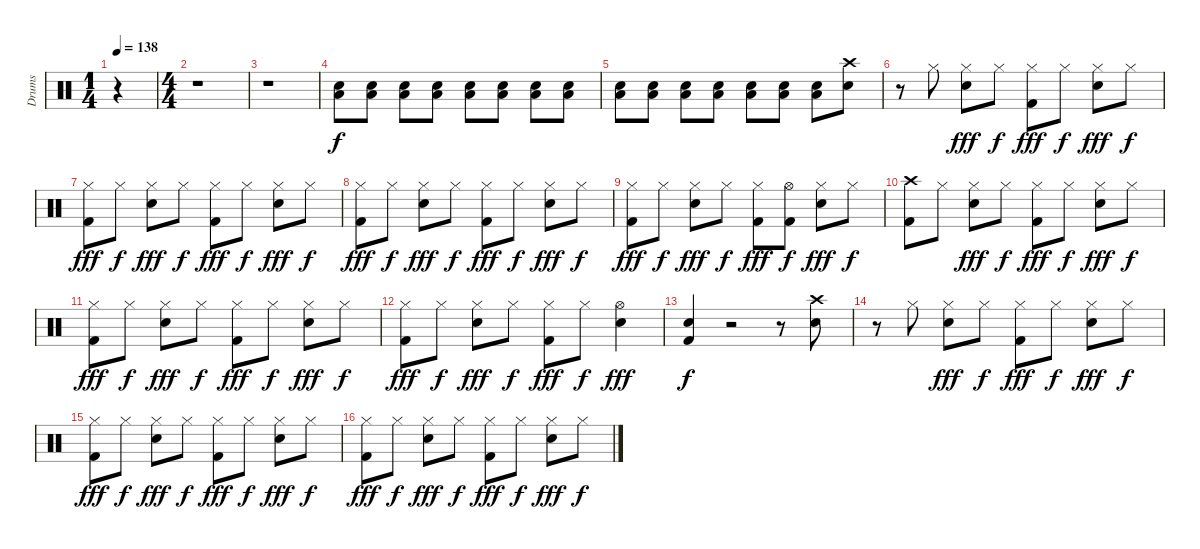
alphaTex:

\track ("Drums" "Drums") {instrument percussion}
\staff {score}
\articulation defaults
\ts (1 4)
\tempo 138
\clef neutral
\ks c
r.4{dy f} |
\ts (4 4)
r.1 |
r.1 |
("Snare (hit) 2" "Low Floor Tom (hit)").8{volume 10} ("Snare (hit) 2" "Low Floor Tom (hit)").8{volume 16} ("Snare (hit) 2" "Low Floor Tom (hit)").8 ("Snare (hit) 2" "Low Floor Tom (hit)").8 ("Snare (hit) 2" "Low Floor Tom (hit)").8 ("Snare (hit) 2" "Low Floor Tom (hit)").8 ("Snare (hit) 2" "Low Floor Tom (hit)").8 ("Snare (hit) 2" "Low Floor Tom (hit)").8 |
("Snare (hit) 2" "Low Floor Tom (hit)").8 ("Snare (hit) 2" "Low Floor Tom (hit)").8 ("Snare (hit) 2" "Low Floor Tom (hit)").8 ("Snare (hit) 2" "Low Floor Tom (hit)").8 ("Snare (hit) 2" "Low Floor Tom (hit)").8 ("Snare (hit) 2" "Low Floor Tom (hit)").8 ("Snare (hit) 2" "Low Floor Tom (hit)").8 ("Crash high (hit)" "Snare (hit) 2").8 |
r.8 "Hi-Hat (closed)".8 ("Hi-Hat (closed)" "Snare (hit) 2").8{dy fff} "Hi-Hat (closed)".8{dy f} ("Hi-Hat (closed)" "Kick (hit) 2").8{dy fff} "Hi-Hat (closed)".8{dy f} ("Hi-Hat (closed)" "Snare (hit) 2").8{dy fff} "Hi-Hat (closed)".8{dy f} |
("Hi-Hat (closed)" "Kick (hit) 2").8{dy fff} "Hi-Hat (closed)".8{dy f} ("Hi-Hat (closed)" "Snare (hit) 2").8{dy fff} "Hi-Hat (closed)".8{dy f} ("Hi-Hat (closed)" "Kick (hit) 2").8{dy fff} "Hi-Hat (closed)".8{dy f} ("Hi-Hat (closed)" "Snare (hit) 2").8{dy fff} "Hi-Hat (closed)".8{dy f} |
("Hi-Hat (closed)" "Kick (hit) 2").8{dy fff} "Hi-Hat (closed)".8{dy f} ("Hi-Hat (closed)" "Snare (hit) 2").8{dy fff} "Hi-Hat (closed)".8{dy f} ("Hi-Hat (closed)" "Kick (hit) 2").8{dy fff} "Hi-Hat (closed)".8{dy f} ("Hi-Hat (closed)" "Snare (hit) 2").8{dy fff} "Hi-Hat (closed)".8{dy f} |
("Hi-Hat (closed)" "Kick (hit) 2").8{dy fff} "Hi-Hat (closed)".8{dy f} ("Hi-Hat (closed)" "Snare (hit) 2").8{dy fff} "Hi-Hat (closed)".8{dy f} ("Hi-Hat (closed)" "Kick (hit) 2").8{dy fff} ("Hi-Hat (open)" "Kick (hit) 2").8{dy f} ("Hi-Hat (closed)" "Snare (hit) 2").8{dy fff} "Hi-Hat (closed)".8{dy f} |
("Crash high (hit)" "Kick (hit) 2").8 "Hi-Hat (closed)".8 ("Hi-Hat (closed)" "Snare (hit) 2").8{dy fff} "Hi-Hat (closed)".8{dy f} ("Hi-Hat (closed)" "Kick (hit) 2").8{dy fff} "Hi-Hat (closed)".8{dy f} ("Hi-Hat (closed)" "Snare (hit) 2").8{dy fff} "Hi-Hat (closed)".8{dy f} |
("Hi-Hat (closed)" "Kick (hit) 2").8{dy fff} "Hi-Hat (closed)".8{dy f} ("Hi-Hat (closed)" "Snare (hit) 2").8{dy fff} "Hi-Hat (closed)".8{dy f} ("Hi-Hat (closed)" "Kick (hit) 2").8{dy fff} "Hi-Hat (closed)".8{dy f} ("Hi-Hat (closed)" "Snare (hit) 2").8{dy fff} "Hi-Hat (closed)".8{dy f} |
("Hi-Hat (closed)" "Kick (hit) 2").8{dy fff} "Hi-Hat (closed)".8{dy f} ("Hi-Hat (closed)" "Snare (hit) 2").8{dy fff} "Hi-Hat (closed)".8{dy f} ("Hi-Hat (closed)" "Kick (hit) 2").8{dy fff} "Hi-Hat (closed)".8{dy f} ("Hi-Hat (open)" "Snare (hit) 2").4{dy fff} |
("Snare (hit) 2" "Kick (hit) 2").4{dy f} r.2 r.8 ("Crash high (hit)" "Snare (hit) 2").8 |
r.8 "Hi-Hat (closed)".8 ("Hi-Hat (closed)" "Snare (hit) 2").8{dy fff} "Hi-Hat (closed)".8{dy f} ("Hi-Hat (closed)" "Kick (hit) 2").8{dy fff} "Hi-Hat (closed)".8{dy f} ("Hi-Hat (closed)" "Snare (hit) 2").8{dy fff} "Hi-Hat (closed)".8{dy f} |
("Hi-Hat (closed)" "Kick (hit) 2").8{dy fff} "Hi-Hat (closed)".8{dy f} ("Hi-Hat (closed)" "Snare (hit) 2").8{dy fff} "Hi-Hat (closed)".8{dy f} ("Hi-Hat (closed)" "Kick (hit) 2").8{dy fff} "Hi-Hat (closed)".8{dy f} ("Hi-Hat (closed)" "Snare (hit) 2").8{dy fff} "Hi-Hat (closed)".8{dy f} |
("Hi-Hat (closed)" "Kick (hit) 2").8{dy fff} "Hi-Hat (closed)".8{dy f} ("Hi-Hat (closed)" "Snare (hit) 2").8{dy fff} "Hi-Hat (closed)".8{dy f} ("Hi-Hat (closed)" "Kick (hit) 2").8{dy fff} "Hi-Hat (closed)".8{dy f} ("Hi-Hat (closed)" "Snare (hit) 2").8{dy fff} "Hi-Hat (closed)".8{dy f}
